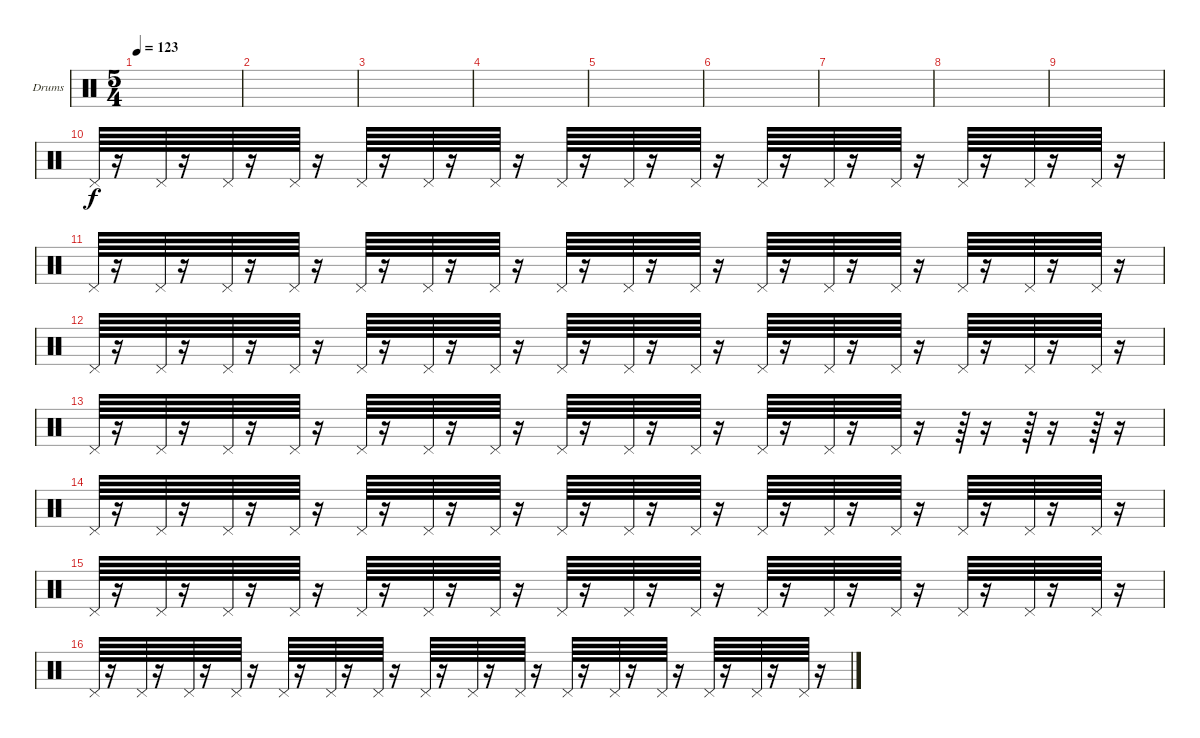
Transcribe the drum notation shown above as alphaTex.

\defaultSystemsLayout 4
\bracketExtendMode groupsimilarinstruments
\firstSystemTrackNameOrientation horizontal
\otherSystemsTrackNameOrientation horizontal
\track ("Drumkit" "Drums") {instrument percussion}
\staff {score}
\articulation defaults
\ts (5 4)
\tempo 123
\clef neutral
\ks c
|
|
|
|
|
|
|
|
|
"Pedal Hi-Hat (hit)".64 r.16 "Pedal Hi-Hat (hit)".64 r.16 "Pedal Hi-Hat (hit)".64 r.16 "Pedal Hi-Hat (hit)".64 r.16 "Pedal Hi-Hat (hit)".64 r.16 "Pedal Hi-Hat (hit)".64 r.16 "Pedal Hi-Hat (hit)".64 r.16 "Pedal Hi-Hat (hit)".64 r.16 "Pedal Hi-Hat (hit)".64 r.16 "Pedal Hi-Hat (hit)".64 r.16 "Pedal Hi-Hat (hit)".64 r.16 "Pedal Hi-Hat (hit)".64 r.16 "Pedal Hi-Hat (hit)".64 r.16 "Pedal Hi-Hat (hit)".64 r.16 "Pedal Hi-Hat (hit)".64 r.16 "Pedal Hi-Hat (hit)".64 r.16 |
"Pedal Hi-Hat (hit)".64 r.16 "Pedal Hi-Hat (hit)".64 r.16 "Pedal Hi-Hat (hit)".64 r.16 "Pedal Hi-Hat (hit)".64 r.16 "Pedal Hi-Hat (hit)".64 r.16 "Pedal Hi-Hat (hit)".64 r.16 "Pedal Hi-Hat (hit)".64 r.16 "Pedal Hi-Hat (hit)".64 r.16 "Pedal Hi-Hat (hit)".64 r.16 "Pedal Hi-Hat (hit)".64 r.16 "Pedal Hi-Hat (hit)".64 r.16 "Pedal Hi-Hat (hit)".64 r.16 "Pedal Hi-Hat (hit)".64 r.16 "Pedal Hi-Hat (hit)".64 r.16 "Pedal Hi-Hat (hit)".64 r.16 "Pedal Hi-Hat (hit)".64 r.16 |
"Pedal Hi-Hat (hit)".64 r.16 "Pedal Hi-Hat (hit)".64 r.16 "Pedal Hi-Hat (hit)".64 r.16 "Pedal Hi-Hat (hit)".64 r.16 "Pedal Hi-Hat (hit)".64 r.16 "Pedal Hi-Hat (hit)".64 r.16 "Pedal Hi-Hat (hit)".64 r.16 "Pedal Hi-Hat (hit)".64 r.16 "Pedal Hi-Hat (hit)".64 r.16 "Pedal Hi-Hat (hit)".64 r.16 "Pedal Hi-Hat (hit)".64 r.16 "Pedal Hi-Hat (hit)".64 r.16 "Pedal Hi-Hat (hit)".64 r.16 "Pedal Hi-Hat (hit)".64 r.16 "Pedal Hi-Hat (hit)".64 r.16 "Pedal Hi-Hat (hit)".64 r.16 |
"Pedal Hi-Hat (hit)".64 r.16 "Pedal Hi-Hat (hit)".64 r.16 "Pedal Hi-Hat (hit)".64 r.16 "Pedal Hi-Hat (hit)".64 r.16 "Pedal Hi-Hat (hit)".64 r.16 "Pedal Hi-Hat (hit)".64 r.16 "Pedal Hi-Hat (hit)".64 r.16 "Pedal Hi-Hat (hit)".64 r.16 "Pedal Hi-Hat (hit)".64 r.16 "Pedal Hi-Hat (hit)".64 r.16 "Pedal Hi-Hat (hit)".64 r.16 "Pedal Hi-Hat (hit)".64 r.16 "Pedal Hi-Hat (hit)".64 r.16 r.64 r.16 r.64 r.16 r.64 r.16 |
"Pedal Hi-Hat (hit)".64 r.16 "Pedal Hi-Hat (hit)".64 r.16 "Pedal Hi-Hat (hit)".64 r.16 "Pedal Hi-Hat (hit)".64 r.16 "Pedal Hi-Hat (hit)".64 r.16 "Pedal Hi-Hat (hit)".64 r.16 "Pedal Hi-Hat (hit)".64 r.16 "Pedal Hi-Hat (hit)".64 r.16 "Pedal Hi-Hat (hit)".64 r.16 "Pedal Hi-Hat (hit)".64 r.16 "Pedal Hi-Hat (hit)".64 r.16 "Pedal Hi-Hat (hit)".64 r.16 "Pedal Hi-Hat (hit)".64 r.16 "Pedal Hi-Hat (hit)".64 r.16 "Pedal Hi-Hat (hit)".64 r.16 "Pedal Hi-Hat (hit)".64 r.16 |
"Pedal Hi-Hat (hit)".64 r.16 "Pedal Hi-Hat (hit)".64 r.16 "Pedal Hi-Hat (hit)".64 r.16 "Pedal Hi-Hat (hit)".64 r.16 "Pedal Hi-Hat (hit)".64 r.16 "Pedal Hi-Hat (hit)".64 r.16 "Pedal Hi-Hat (hit)".64 r.16 "Pedal Hi-Hat (hit)".64 r.16 "Pedal Hi-Hat (hit)".64 r.16 "Pedal Hi-Hat (hit)".64 r.16 "Pedal Hi-Hat (hit)".64 r.16 "Pedal Hi-Hat (hit)".64 r.16 "Pedal Hi-Hat (hit)".64 r.16 "Pedal Hi-Hat (hit)".64 r.16 "Pedal Hi-Hat (hit)".64 r.16 "Pedal Hi-Hat (hit)".64 r.16 |
"Pedal Hi-Hat (hit)".64 r.16 "Pedal Hi-Hat (hit)".64 r.16 "Pedal Hi-Hat (hit)".64 r.16 "Pedal Hi-Hat (hit)".64 r.16 "Pedal Hi-Hat (hit)".64 r.16 "Pedal Hi-Hat (hit)".64 r.16 "Pedal Hi-Hat (hit)".64 r.16 "Pedal Hi-Hat (hit)".64 r.16 "Pedal Hi-Hat (hit)".64 r.16 "Pedal Hi-Hat (hit)".64 r.16 "Pedal Hi-Hat (hit)".64 r.16 "Pedal Hi-Hat (hit)".64 r.16 "Pedal Hi-Hat (hit)".64 r.16 "Pedal Hi-Hat (hit)".64 r.16 "Pedal Hi-Hat (hit)".64 r.16 "Pedal Hi-Hat (hit)".64 r.16
